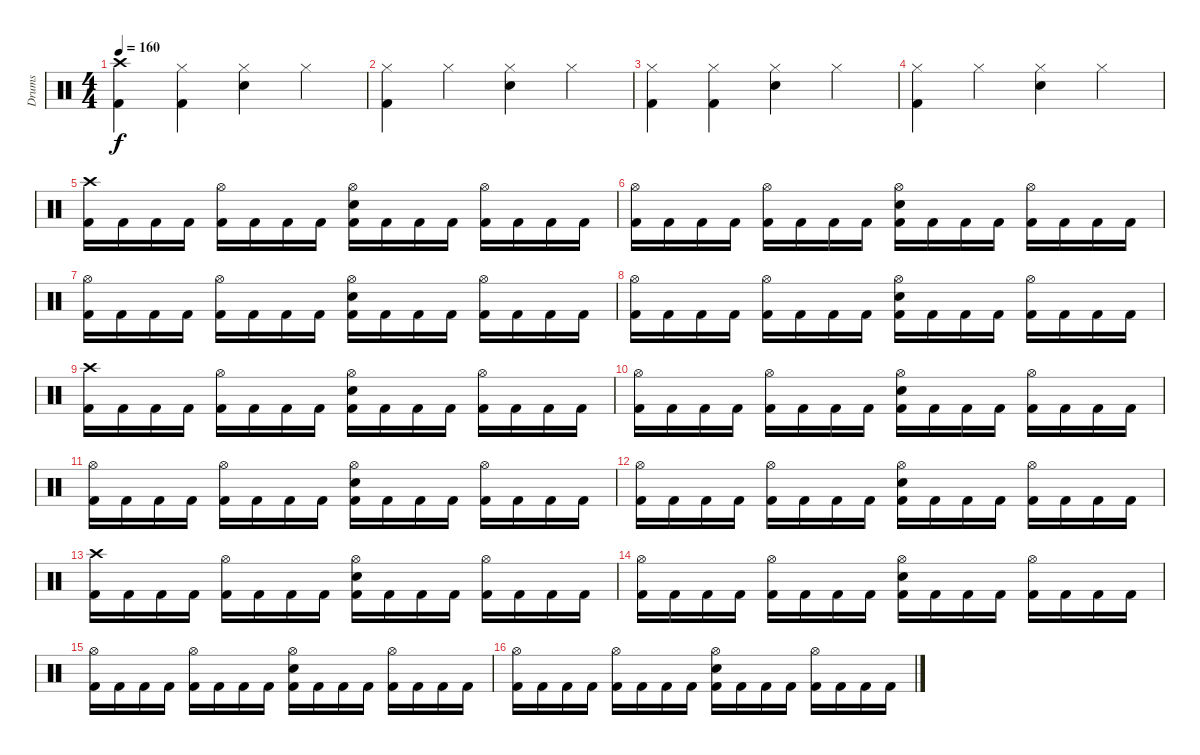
\track ("Drums" "Drums") {instrument percussion}
\staff {score}
\articulation defaults
\ts (4 4)
\tempo 160
\clef neutral
\ks c
("Crash high (hit)" "Kick (hit) 2").4{dy f} ("Hi-Hat (closed)" "Kick (hit) 2").4 ("Hi-Hat (closed)" "Snare (hit) 2").4 "Hi-Hat (closed)".4 |
("Hi-Hat (closed)" "Kick (hit) 2").4 "Hi-Hat (closed)".4 ("Hi-Hat (closed)" "Snare (hit) 2").4 "Hi-Hat (closed)".4 |
("Hi-Hat (closed)" "Kick (hit) 2").4 ("Hi-Hat (closed)" "Kick (hit) 2").4 ("Hi-Hat (closed)" "Snare (hit) 2").4 "Hi-Hat (closed)".4 |
("Hi-Hat (closed)" "Kick (hit) 2").4 "Hi-Hat (closed)".4 ("Hi-Hat (closed)" "Snare (hit) 2").4 "Hi-Hat (closed)".4 |
("Crash high (hit)" "Kick (hit) 2").16 "Kick (hit) 2".16 "Kick (hit) 2".16 "Kick (hit) 2".16 ("Hi-Hat (open)" "Kick (hit) 2").16 "Kick (hit) 2".16 "Kick (hit) 2".16 "Kick (hit) 2".16 ("Hi-Hat (open)" "Snare (hit) 2" "Kick (hit) 2").16 "Kick (hit) 2".16 "Kick (hit) 2".16 "Kick (hit) 2".16 ("Hi-Hat (open)" "Kick (hit) 2").16 "Kick (hit) 2".16 "Kick (hit) 2".16 "Kick (hit) 2".16 |
("Hi-Hat (open)" "Kick (hit) 2").16 "Kick (hit) 2".16 "Kick (hit) 2".16 "Kick (hit) 2".16 ("Hi-Hat (open)" "Kick (hit) 2").16 "Kick (hit) 2".16 "Kick (hit) 2".16 "Kick (hit) 2".16 ("Hi-Hat (open)" "Snare (hit) 2" "Kick (hit) 2").16 "Kick (hit) 2".16 "Kick (hit) 2".16 "Kick (hit) 2".16 ("Hi-Hat (open)" "Kick (hit) 2").16 "Kick (hit) 2".16 "Kick (hit) 2".16 "Kick (hit) 2".16 |
("Hi-Hat (open)" "Kick (hit) 2").16 "Kick (hit) 2".16 "Kick (hit) 2".16 "Kick (hit) 2".16 ("Hi-Hat (open)" "Kick (hit) 2").16 "Kick (hit) 2".16 "Kick (hit) 2".16 "Kick (hit) 2".16 ("Hi-Hat (open)" "Snare (hit) 2" "Kick (hit) 2").16 "Kick (hit) 2".16 "Kick (hit) 2".16 "Kick (hit) 2".16 ("Hi-Hat (open)" "Kick (hit) 2").16 "Kick (hit) 2".16 "Kick (hit) 2".16 "Kick (hit) 2".16 |
("Hi-Hat (open)" "Kick (hit) 2").16 "Kick (hit) 2".16 "Kick (hit) 2".16 "Kick (hit) 2".16 ("Hi-Hat (open)" "Kick (hit) 2").16 "Kick (hit) 2".16 "Kick (hit) 2".16 "Kick (hit) 2".16 ("Hi-Hat (open)" "Snare (hit) 2" "Kick (hit) 2").16 "Kick (hit) 2".16 "Kick (hit) 2".16 "Kick (hit) 2".16 ("Hi-Hat (open)" "Kick (hit) 2").16 "Kick (hit) 2".16 "Kick (hit) 2".16 "Kick (hit) 2".16 |
("Crash high (hit)" "Kick (hit) 2").16 "Kick (hit) 2".16 "Kick (hit) 2".16 "Kick (hit) 2".16 ("Hi-Hat (open)" "Kick (hit) 2").16 "Kick (hit) 2".16 "Kick (hit) 2".16 "Kick (hit) 2".16 ("Hi-Hat (open)" "Snare (hit) 2" "Kick (hit) 2").16 "Kick (hit) 2".16 "Kick (hit) 2".16 "Kick (hit) 2".16 ("Hi-Hat (open)" "Kick (hit) 2").16 "Kick (hit) 2".16 "Kick (hit) 2".16 "Kick (hit) 2".16 |
("Hi-Hat (open)" "Kick (hit) 2").16 "Kick (hit) 2".16 "Kick (hit) 2".16 "Kick (hit) 2".16 ("Hi-Hat (open)" "Kick (hit) 2").16 "Kick (hit) 2".16 "Kick (hit) 2".16 "Kick (hit) 2".16 ("Hi-Hat (open)" "Snare (hit) 2" "Kick (hit) 2").16 "Kick (hit) 2".16 "Kick (hit) 2".16 "Kick (hit) 2".16 ("Hi-Hat (open)" "Kick (hit) 2").16 "Kick (hit) 2".16 "Kick (hit) 2".16 "Kick (hit) 2".16 |
("Hi-Hat (open)" "Kick (hit) 2").16 "Kick (hit) 2".16 "Kick (hit) 2".16 "Kick (hit) 2".16 ("Hi-Hat (open)" "Kick (hit) 2").16 "Kick (hit) 2".16 "Kick (hit) 2".16 "Kick (hit) 2".16 ("Hi-Hat (open)" "Snare (hit) 2" "Kick (hit) 2").16 "Kick (hit) 2".16 "Kick (hit) 2".16 "Kick (hit) 2".16 ("Hi-Hat (open)" "Kick (hit) 2").16 "Kick (hit) 2".16 "Kick (hit) 2".16 "Kick (hit) 2".16 |
("Hi-Hat (open)" "Kick (hit) 2").16 "Kick (hit) 2".16 "Kick (hit) 2".16 "Kick (hit) 2".16 ("Hi-Hat (open)" "Kick (hit) 2").16 "Kick (hit) 2".16 "Kick (hit) 2".16 "Kick (hit) 2".16 ("Hi-Hat (open)" "Snare (hit) 2" "Kick (hit) 2").16 "Kick (hit) 2".16 "Kick (hit) 2".16 "Kick (hit) 2".16 ("Hi-Hat (open)" "Kick (hit) 2").16 "Kick (hit) 2".16 "Kick (hit) 2".16 "Kick (hit) 2".16 |
("Crash high (hit)" "Kick (hit) 2").16 "Kick (hit) 2".16 "Kick (hit) 2".16 "Kick (hit) 2".16 ("Hi-Hat (open)" "Kick (hit) 2").16 "Kick (hit) 2".16 "Kick (hit) 2".16 "Kick (hit) 2".16 ("Hi-Hat (open)" "Snare (hit) 2" "Kick (hit) 2").16 "Kick (hit) 2".16 "Kick (hit) 2".16 "Kick (hit) 2".16 ("Hi-Hat (open)" "Kick (hit) 2").16 "Kick (hit) 2".16 "Kick (hit) 2".16 "Kick (hit) 2".16 |
("Hi-Hat (open)" "Kick (hit) 2").16 "Kick (hit) 2".16 "Kick (hit) 2".16 "Kick (hit) 2".16 ("Hi-Hat (open)" "Kick (hit) 2").16 "Kick (hit) 2".16 "Kick (hit) 2".16 "Kick (hit) 2".16 ("Hi-Hat (open)" "Snare (hit) 2" "Kick (hit) 2").16 "Kick (hit) 2".16 "Kick (hit) 2".16 "Kick (hit) 2".16 ("Hi-Hat (open)" "Kick (hit) 2").16 "Kick (hit) 2".16 "Kick (hit) 2".16 "Kick (hit) 2".16 |
("Hi-Hat (open)" "Kick (hit) 2").16 "Kick (hit) 2".16 "Kick (hit) 2".16 "Kick (hit) 2".16 ("Hi-Hat (open)" "Kick (hit) 2").16 "Kick (hit) 2".16 "Kick (hit) 2".16 "Kick (hit) 2".16 ("Hi-Hat (open)" "Snare (hit) 2" "Kick (hit) 2").16 "Kick (hit) 2".16 "Kick (hit) 2".16 "Kick (hit) 2".16 ("Hi-Hat (open)" "Kick (hit) 2").16 "Kick (hit) 2".16 "Kick (hit) 2".16 "Kick (hit) 2".16 |
("Hi-Hat (open)" "Kick (hit) 2").16 "Kick (hit) 2".16 "Kick (hit) 2".16 "Kick (hit) 2".16 ("Hi-Hat (open)" "Kick (hit) 2").16 "Kick (hit) 2".16 "Kick (hit) 2".16 "Kick (hit) 2".16 ("Hi-Hat (open)" "Snare (hit) 2" "Kick (hit) 2").16 "Kick (hit) 2".16 "Kick (hit) 2".16 "Kick (hit) 2".16 ("Hi-Hat (open)" "Kick (hit) 2").16 "Kick (hit) 2".16 "Kick (hit) 2".16 "Kick (hit) 2".16
